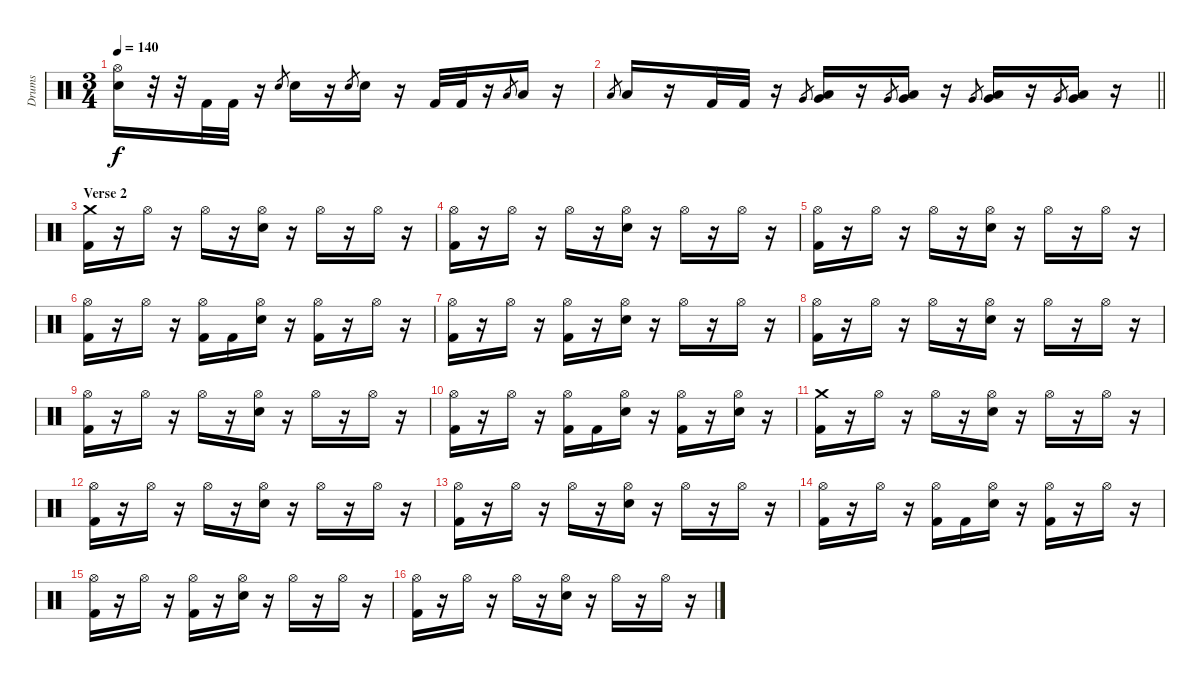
\track ("Drums" "Drums") {instrument percussion}
\staff {score}
\articulation defaults
\ts (3 4)
\tempo 140
\clef neutral
\ks c
("Hi-Hat (open)" "Electric Snare (hit)").16{dy f} r.32 r.32 "Kick (hit) 2".32 "Kick (hit) 2".32 r.16 "Electric Snare (hit)".8{gr} "Electric Snare (hit)".16 r.16 "Electric Snare (hit)".8{gr} "Electric Snare (hit)".16 r.16 "Kick (hit) 2".32 "Kick (hit) 2".32 r.16 "Low Tom (hit)".8{gr} "Low Tom (hit)".16 r.16 |
\barLineRight lightlight "Low Tom (hit)".8{gr} "Low Tom (hit)".16
r.16 "Kick (hit) 2".32 "Kick (hit) 2".32 r.16 "Very Low Tom (hit)".8{gr} ("Low Floor Tom (hit)" "Very Low Tom (hit)").16 r.16 "Very Low Tom (hit)".8{gr} ("Low Floor Tom (hit)" "Very Low Tom (hit)").16 r.16 "Very Low Tom (hit)".8{gr} ("Low Floor Tom (hit)" "Very Low Tom (hit)").16 r.16 "Very Low Tom (hit)".8{gr} ("Low Floor Tom (hit)" "Very Low Tom (hit)").16 r.16 |
\section ("" "Verse 2")
("Crash medium (hit)" "Kick (hit) 2").16 r.16 "Hi-Hat (open)".16 r.16 "Hi-Hat (open)".16 r.16 ("Hi-Hat (open)" "Electric Snare (hit)").16 r.16 "Hi-Hat (open)".16 r.16 "Hi-Hat (open)".16 r.16 |
("Hi-Hat (open)" "Kick (hit) 2").16 r.16 "Hi-Hat (open)".16 r.16 "Hi-Hat (open)".16 r.16 ("Hi-Hat (open)" "Electric Snare (hit)").16 r.16 "Hi-Hat (open)".16 r.16 "Hi-Hat (open)".16 r.16 |
("Hi-Hat (open)" "Kick (hit) 2").16 r.16 "Hi-Hat (open)".16 r.16 "Hi-Hat (open)".16 r.16 ("Hi-Hat (open)" "Electric Snare (hit)").16 r.16 "Hi-Hat (open)".16 r.16 "Hi-Hat (open)".16 r.16 |
("Hi-Hat (open)" "Kick (hit) 2").16 r.16 "Hi-Hat (open)".16 r.16 ("Hi-Hat (open)" "Kick (hit) 2").16 "Kick (hit) 2".16 ("Hi-Hat (open)" "Electric Snare (hit)").16 r.16 ("Hi-Hat (open)" "Kick (hit) 2").16 r.16 "Hi-Hat (open)".16 r.16 |
("Hi-Hat (open)" "Kick (hit) 2").16 r.16 "Hi-Hat (open)".16 r.16 ("Hi-Hat (open)" "Kick (hit) 2").16 r.16 ("Hi-Hat (open)" "Electric Snare (hit)").16 r.16 "Hi-Hat (open)".16 r.16 "Hi-Hat (open)".16 r.16 |
("Hi-Hat (open)" "Kick (hit) 2").16 r.16 "Hi-Hat (open)".16 r.16 "Hi-Hat (open)".16 r.16 ("Hi-Hat (open)" "Electric Snare (hit)").16 r.16 "Hi-Hat (open)".16 r.16 "Hi-Hat (open)".16 r.16 |
("Hi-Hat (open)" "Kick (hit) 2").16 r.16 "Hi-Hat (open)".16 r.16 "Hi-Hat (open)".16 r.16 ("Hi-Hat (open)" "Electric Snare (hit)").16 r.16 "Hi-Hat (open)".16 r.16 "Hi-Hat (open)".16 r.16 |
("Hi-Hat (open)" "Kick (hit) 2").16 r.16 "Hi-Hat (open)".16 r.16 ("Hi-Hat (open)" "Kick (hit) 2").16 "Kick (hit) 2".16 ("Hi-Hat (open)" "Electric Snare (hit)").16 r.16 ("Hi-Hat (open)" "Kick (hit) 2").16 r.16 ("Hi-Hat (open)" "Electric Snare (hit)").16 r.16 |
("Crash medium (hit)" "Kick (hit) 2").16 r.16 "Hi-Hat (open)".16 r.16 "Hi-Hat (open)".16 r.16 ("Hi-Hat (open)" "Electric Snare (hit)").16 r.16 "Hi-Hat (open)".16 r.16 "Hi-Hat (open)".16 r.16 |
("Hi-Hat (open)" "Kick (hit) 2").16 r.16 "Hi-Hat (open)".16 r.16 "Hi-Hat (open)".16 r.16 ("Hi-Hat (open)" "Electric Snare (hit)").16 r.16 "Hi-Hat (open)".16 r.16 "Hi-Hat (open)".16 r.16 |
("Hi-Hat (open)" "Kick (hit) 2").16 r.16 "Hi-Hat (open)".16 r.16 "Hi-Hat (open)".16 r.16 ("Hi-Hat (open)" "Electric Snare (hit)").16 r.16 "Hi-Hat (open)".16 r.16 "Hi-Hat (open)".16 r.16 |
("Hi-Hat (open)" "Kick (hit) 2").16 r.16 "Hi-Hat (open)".16 r.16 ("Hi-Hat (open)" "Kick (hit) 2").16 "Kick (hit) 2".16 ("Hi-Hat (open)" "Electric Snare (hit)").16 r.16 ("Hi-Hat (open)" "Kick (hit) 2").16 r.16 "Hi-Hat (open)".16 r.16 |
("Hi-Hat (open)" "Kick (hit) 2").16 r.16 "Hi-Hat (open)".16 r.16 ("Hi-Hat (open)" "Kick (hit) 2").16 r.16 ("Hi-Hat (open)" "Electric Snare (hit)").16 r.16 "Hi-Hat (open)".16 r.16 "Hi-Hat (open)".16 r.16 |
("Hi-Hat (open)" "Kick (hit) 2").16 r.16 "Hi-Hat (open)".16 r.16 "Hi-Hat (open)".16 r.16 ("Hi-Hat (open)" "Electric Snare (hit)").16 r.16 "Hi-Hat (open)".16 r.16 "Hi-Hat (open)".16 r.16
